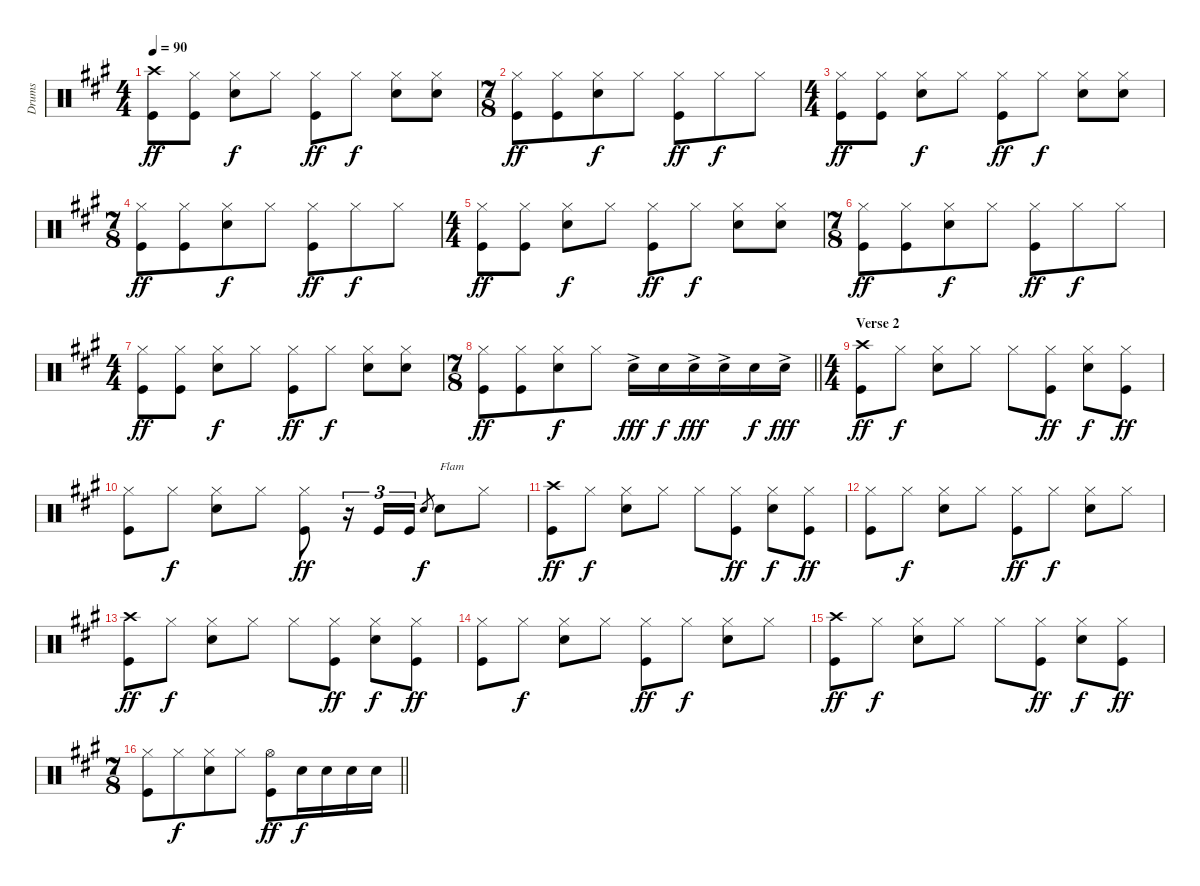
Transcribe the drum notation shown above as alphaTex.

\track ("Drums" "Drums") {instrument percussion}
\staff {score}
\articulation defaults
\ts (4 4)
\tempo 90
\clef neutral
\ks a
("Crash high (hit)" "Kick (hit)").8{dy ff} ("Hi-Hat (closed)" "Kick (hit)").8 ("Hi-Hat (closed)" "Snare (hit) 2").8{dy f} "Hi-Hat (closed)".8 ("Hi-Hat (closed)" "Kick (hit)").8{dy ff} "Hi-Hat (closed)".8{dy f} ("Hi-Hat (closed)" "Snare (hit) 2").8 ("Hi-Hat (closed)" "Snare (hit) 2").8 |
\ts (7 8)
("Hi-Hat (closed)" "Kick (hit)").8{dy ff} ("Hi-Hat (closed)" "Kick (hit)").8 ("Hi-Hat (closed)" "Snare (hit) 2").8{dy f} "Hi-Hat (closed)".8 ("Hi-Hat (closed)" "Kick (hit)").8{dy ff} "Hi-Hat (closed)".8{dy f} "Hi-Hat (closed)".8 |
\ts (4 4)
("Hi-Hat (closed)" "Kick (hit)").8{dy ff} ("Hi-Hat (closed)" "Kick (hit)").8 ("Hi-Hat (closed)" "Snare (hit) 2").8{dy f} "Hi-Hat (closed)".8 ("Hi-Hat (closed)" "Kick (hit)").8{dy ff} "Hi-Hat (closed)".8{dy f} ("Hi-Hat (closed)" "Snare (hit) 2").8 ("Hi-Hat (closed)" "Snare (hit) 2").8 |
\ts (7 8)
("Hi-Hat (closed)" "Kick (hit)").8{dy ff} ("Hi-Hat (closed)" "Kick (hit)").8 ("Hi-Hat (closed)" "Snare (hit) 2").8{dy f} "Hi-Hat (closed)".8 ("Hi-Hat (closed)" "Kick (hit)").8{dy ff} "Hi-Hat (closed)".8{dy f} "Hi-Hat (closed)".8 |
\ts (4 4)
("Hi-Hat (closed)" "Kick (hit)").8{dy ff} ("Hi-Hat (closed)" "Kick (hit)").8 ("Hi-Hat (closed)" "Snare (hit) 2").8{dy f} "Hi-Hat (closed)".8 ("Hi-Hat (closed)" "Kick (hit)").8{dy ff} "Hi-Hat (closed)".8{dy f} ("Hi-Hat (closed)" "Snare (hit) 2").8 ("Hi-Hat (closed)" "Snare (hit) 2").8 |
\ts (7 8)
("Hi-Hat (closed)" "Kick (hit)").8{dy ff} ("Hi-Hat (closed)" "Kick (hit)").8 ("Hi-Hat (closed)" "Snare (hit) 2").8{dy f} "Hi-Hat (closed)".8 ("Hi-Hat (closed)" "Kick (hit)").8{dy ff} "Hi-Hat (closed)".8{dy f} "Hi-Hat (closed)".8 |
\ts (4 4)
("Hi-Hat (closed)" "Kick (hit)").8{dy ff} ("Hi-Hat (closed)" "Kick (hit)").8 ("Hi-Hat (closed)" "Snare (hit) 2").8{dy f} "Hi-Hat (closed)".8 ("Hi-Hat (closed)" "Kick (hit)").8{dy ff} "Hi-Hat (closed)".8{dy f} ("Hi-Hat (closed)" "Snare (hit) 2").8 ("Hi-Hat (closed)" "Snare (hit) 2").8 |
\ts (7 8)
\barLineRight lightlight
("Hi-Hat (closed)" "Kick (hit)").8{dy ff} ("Hi-Hat (closed)" "Kick (hit)").8 ("Hi-Hat (closed)" "Snare (hit) 2").8{dy f} "Hi-Hat (closed)".8 "Snare (hit) 2"{ac}.16{dy fff} "Snare (hit) 2".16{dy f} "Snare (hit) 2"{ac}.16{dy fff} "Snare (hit) 2"{ac}.16 "Snare (hit) 2".16{dy f} "Snare (hit) 2"{ac}.16{dy fff} |
\ts (4 4)
\section ("" "Verse 2")
("Crash high (hit)" "Kick (hit)").8{dy ff} "Hi-Hat (closed)".8{dy f} ("Hi-Hat (closed)" "Snare (hit) 2").8 "Hi-Hat (closed)".8 "Hi-Hat (closed)".8 ("Hi-Hat (closed)" "Kick (hit)").8{dy ff} ("Hi-Hat (closed)" "Snare (hit) 2").8{dy f} ("Hi-Hat (closed)" "Kick (hit)").8{dy ff} |
("Hi-Hat (closed)" "Kick (hit)").8 "Hi-Hat (closed)".8{dy f} ("Hi-Hat (closed)" "Snare (hit) 2").8 "Hi-Hat (closed)".8 ("Hi-Hat (closed)" "Kick (hit)").8{dy ff} r.16{tu (3 2)} "Kick (hit)".16{tu (3 2)} "Kick (hit)".16{tu (3 2)} "Snare (hit) 2".8{gr dy f} "Snare (hit) 2".8{txt "Flam"} "Hi-Hat (closed)".8 |
("Crash high (hit)" "Kick (hit)").8{dy ff} "Hi-Hat (closed)".8{dy f} ("Hi-Hat (closed)" "Snare (hit) 2").8 "Hi-Hat (closed)".8 "Hi-Hat (closed)".8 ("Hi-Hat (closed)" "Kick (hit)").8{dy ff} ("Hi-Hat (closed)" "Snare (hit) 2").8{dy f} ("Hi-Hat (closed)" "Kick (hit)").8{dy ff} |
("Hi-Hat (closed)" "Kick (hit)").8 "Hi-Hat (closed)".8{dy f} ("Hi-Hat (closed)" "Snare (hit) 2").8 "Hi-Hat (closed)".8 ("Hi-Hat (closed)" "Kick (hit)").8{dy ff} "Hi-Hat (closed)".8{dy f} ("Hi-Hat (closed)" "Snare (hit) 2").8 "Hi-Hat (closed)".8 |
("Crash high (hit)" "Kick (hit)").8{dy ff} "Hi-Hat (closed)".8{dy f} ("Hi-Hat (closed)" "Snare (hit) 2").8 "Hi-Hat (closed)".8 "Hi-Hat (closed)".8 ("Hi-Hat (closed)" "Kick (hit)").8{dy ff} ("Hi-Hat (closed)" "Snare (hit) 2").8{dy f} ("Hi-Hat (closed)" "Kick (hit)").8{dy ff} |
("Hi-Hat (closed)" "Kick (hit)").8 "Hi-Hat (closed)".8{dy f} ("Hi-Hat (closed)" "Snare (hit) 2").8 "Hi-Hat (closed)".8 ("Hi-Hat (closed)" "Kick (hit)").8{dy ff} "Hi-Hat (closed)".8{dy f} ("Hi-Hat (closed)" "Snare (hit) 2").8 "Hi-Hat (closed)".8 |
("Crash high (hit)" "Kick (hit)").8{dy ff} "Hi-Hat (closed)".8{dy f} ("Hi-Hat (closed)" "Snare (hit) 2").8 "Hi-Hat (closed)".8 "Hi-Hat (closed)".8 ("Hi-Hat (closed)" "Kick (hit)").8{dy ff} ("Hi-Hat (closed)" "Snare (hit) 2").8{dy f} ("Hi-Hat (closed)" "Kick (hit)").8{dy ff} |
\ts (7 8)
\barLineRight lightlight
("Hi-Hat (closed)" "Kick (hit)").8 "Hi-Hat (closed)".8{dy f} ("Hi-Hat (closed)" "Snare (hit) 2").8 "Hi-Hat (closed)".8 ("Hi-Hat (open)" "Kick (hit)").8{dy ff} "Snare (hit) 2".16{dy f} "Snare (hit) 2".16 "Snare (hit) 2".16 "Snare (hit) 2".16
